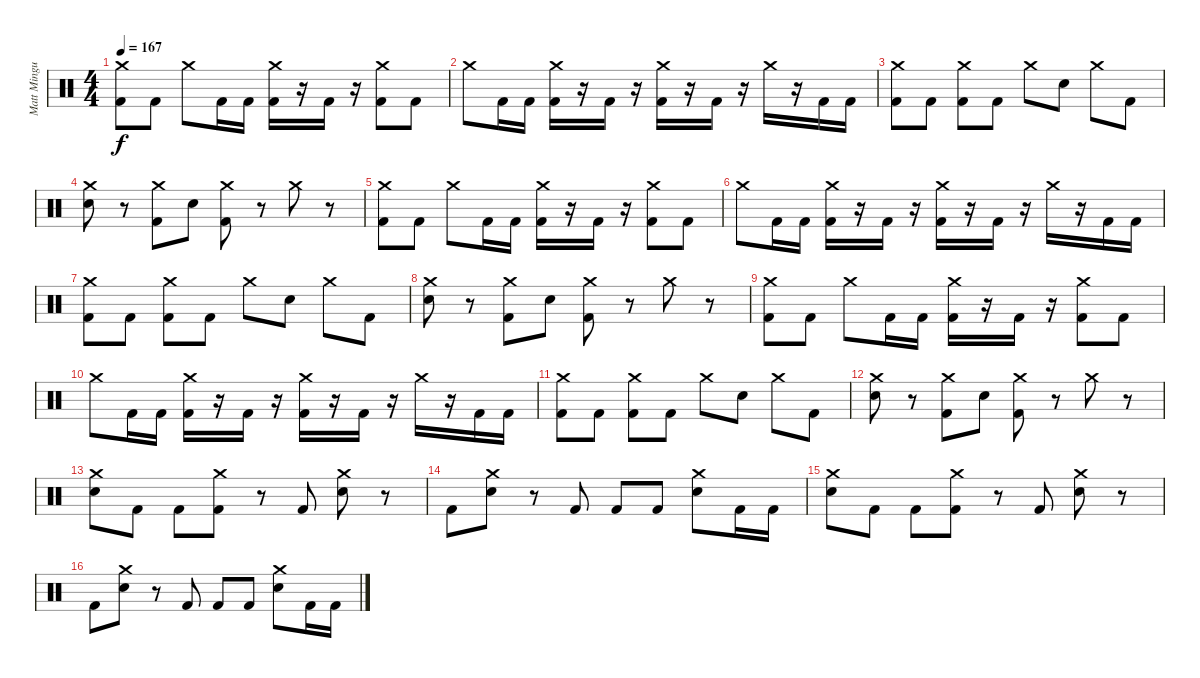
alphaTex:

\track ("Matt Mingus" "Matt Mingu") {instrument percussion}
\staff {score}
\articulation defaults
\ts (4 4)
\tempo 167
\clef neutral
\ks c
("Kick (hit) 2" "Crash medium (hit)").8{dy f} "Kick (hit) 2".8 "Crash medium (hit)".8 "Kick (hit) 2".16 "Kick (hit) 2".16 ("Kick (hit) 2" "Crash medium (hit)").16 r.16 "Kick (hit) 2".16 r.16 ("Kick (hit) 2" "Crash medium (hit)").8 "Kick (hit) 2".8 |
"Crash medium (hit)".8 "Kick (hit) 2".16 "Kick (hit) 2".16 ("Kick (hit) 2" "Crash medium (hit)").16 r.16 "Kick (hit) 2".16 r.16 ("Kick (hit) 2" "Crash medium (hit)").16 r.16 "Kick (hit) 2".16 r.16 "Crash medium (hit)".16 r.16 "Kick (hit) 2".16 "Kick (hit) 2".16 |
("Kick (hit) 2" "Crash medium (hit)").8 "Kick (hit) 2".8 ("Kick (hit) 2" "Crash medium (hit)").8 "Kick (hit) 2".8 "Crash medium (hit)".8 "Electric Snare (hit)".8 "Crash medium (hit)".8 "Kick (hit) 2".8 |
("Electric Snare (hit)" "Crash medium (hit)").8 r.8 ("Kick (hit) 2" "Crash medium (hit)").8 "Electric Snare (hit)".8 ("Kick (hit) 2" "Crash medium (hit)").8 r.8 "Crash medium (hit)".8 r.8 |
("Kick (hit) 2" "Crash medium (hit)").8 "Kick (hit) 2".8 "Crash medium (hit)".8 "Kick (hit) 2".16 "Kick (hit) 2".16 ("Kick (hit) 2" "Crash medium (hit)").16 r.16 "Kick (hit) 2".16 r.16 ("Kick (hit) 2" "Crash medium (hit)").8 "Kick (hit) 2".8 |
"Crash medium (hit)".8 "Kick (hit) 2".16 "Kick (hit) 2".16 ("Kick (hit) 2" "Crash medium (hit)").16 r.16 "Kick (hit) 2".16 r.16 ("Kick (hit) 2" "Crash medium (hit)").16 r.16 "Kick (hit) 2".16 r.16 "Crash medium (hit)".16 r.16 "Kick (hit) 2".16 "Kick (hit) 2".16 |
("Kick (hit) 2" "Crash medium (hit)").8 "Kick (hit) 2".8 ("Kick (hit) 2" "Crash medium (hit)").8 "Kick (hit) 2".8 "Crash medium (hit)".8 "Electric Snare (hit)".8 "Crash medium (hit)".8 "Kick (hit) 2".8 |
("Electric Snare (hit)" "Crash medium (hit)").8 r.8 ("Kick (hit) 2" "Crash medium (hit)").8 "Electric Snare (hit)".8 ("Kick (hit) 2" "Crash medium (hit)").8 r.8 "Crash medium (hit)".8 r.8 |
("Kick (hit) 2" "Crash medium (hit)").8 "Kick (hit) 2".8 "Crash medium (hit)".8 "Kick (hit) 2".16 "Kick (hit) 2".16 ("Kick (hit) 2" "Crash medium (hit)").16 r.16 "Kick (hit) 2".16 r.16 ("Kick (hit) 2" "Crash medium (hit)").8 "Kick (hit) 2".8 |
"Crash medium (hit)".8 "Kick (hit) 2".16 "Kick (hit) 2".16 ("Kick (hit) 2" "Crash medium (hit)").16 r.16 "Kick (hit) 2".16 r.16 ("Kick (hit) 2" "Crash medium (hit)").16 r.16 "Kick (hit) 2".16 r.16 "Crash medium (hit)".16 r.16 "Kick (hit) 2".16 "Kick (hit) 2".16 |
("Kick (hit) 2" "Crash medium (hit)").8 "Kick (hit) 2".8 ("Kick (hit) 2" "Crash medium (hit)").8 "Kick (hit) 2".8 "Crash medium (hit)".8 "Electric Snare (hit)".8 "Crash medium (hit)".8 "Kick (hit) 2".8 |
("Electric Snare (hit)" "Crash medium (hit)").8 r.8 ("Kick (hit) 2" "Crash medium (hit)").8 "Electric Snare (hit)".8 ("Kick (hit) 2" "Crash medium (hit)").8 r.8 "Crash medium (hit)".8 r.8 |
("Electric Snare (hit)" "Crash medium (hit)").8 "Kick (hit) 2".8 "Kick (hit) 2".8 ("Kick (hit) 2" "Crash medium (hit)").8 r.8 "Kick (hit) 2".8 ("Electric Snare (hit)" "Crash medium (hit)").8 r.8 |
"Kick (hit) 2".8 ("Electric Snare (hit)" "Crash medium (hit)").8 r.8 "Kick (hit) 2".8 "Kick (hit) 2".8 "Kick (hit) 2".8 ("Electric Snare (hit)" "Crash medium (hit)").8 "Kick (hit) 2".16 "Kick (hit) 2".16 |
("Electric Snare (hit)" "Crash medium (hit)").8 "Kick (hit) 2".8 "Kick (hit) 2".8 ("Kick (hit) 2" "Crash medium (hit)").8 r.8 "Kick (hit) 2".8 ("Electric Snare (hit)" "Crash medium (hit)").8 r.8 |
"Kick (hit) 2".8 ("Electric Snare (hit)" "Crash medium (hit)").8 r.8 "Kick (hit) 2".8 "Kick (hit) 2".8 "Kick (hit) 2".8 ("Electric Snare (hit)" "Crash medium (hit)").8 "Kick (hit) 2".16 "Kick (hit) 2".16
